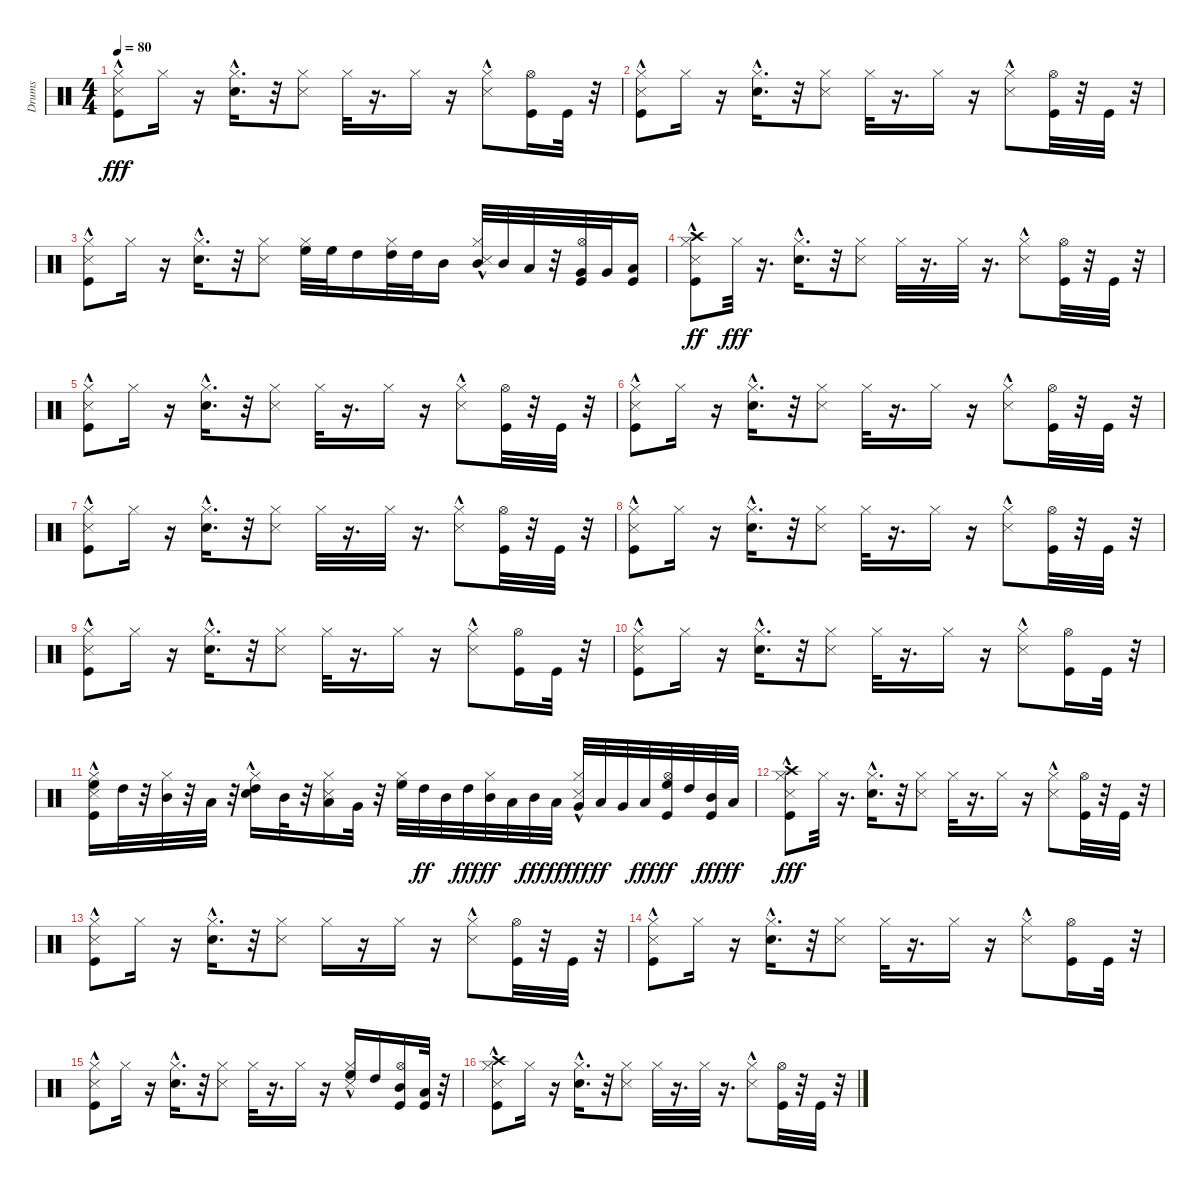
\track ("Drums" "Drums") {instrument percussion}
\staff {score}
\articulation defaults
\ts (4 4)
\tempo 80
\clef neutral
\ks c
("Snare (side stick) 3" "Kick (hit)"{hac} "Hi-Hat (closed)").8{dy fff} "Hi-Hat (closed)".16 r.16 ("Electric Snare (hit)"{hac} "Hi-Hat (closed)").16{d} r.32 ("Snare (side stick) 3" "Hi-Hat (closed)").8 "Hi-Hat (closed)".32 r.16{d} "Hi-Hat (closed)".16 r.16 ("Snare (side stick) 3"{hac} "Hi-Hat (closed)").8 ("Hi-Hat (open)" "Kick (hit)").16 "Kick (hit)".32 r.32 |
("Snare (side stick) 3" "Kick (hit)"{hac} "Hi-Hat (closed)").8 "Hi-Hat (closed)".16 r.16 ("Hi-Hat (closed)" "Electric Snare (hit)"{hac}).16{d} r.32 ("Hi-Hat (closed)" "Snare (side stick) 3").8 "Hi-Hat (closed)".32 r.16{d} "Hi-Hat (closed)".16 r.16 ("Hi-Hat (closed)" "Snare (side stick) 3"{hac}).8 ("Kick (hit)" "Hi-Hat (open)").32 r.32 "Kick (hit)".32 r.32 |
("Snare (side stick) 3" "Kick (hit)"{hac} "Hi-Hat (closed)").8 "Hi-Hat (closed)".16 r.16 ("Electric Snare (hit)"{hac} "Hi-Hat (closed)").16{d} r.32 ("Snare (side stick) 3" "Hi-Hat (closed)").8 ("Hi-Hat (closed)" "High Floor Tom (hit)").32 "High Floor Tom (hit)".32 "High Tom (hit)".16 ("Hi-Hat (closed)" "High Tom (hit)").32 "High Tom (hit)".32 "Mid Tom (hit)".16 ("Snare (side stick) 3"{hac} "Hi-Hat (closed)" "Mid Tom (hit)").32 "Mid Tom (hit)".32 "Low Tom (hit)".32 r.32 ("Hi-Hat (open)" "Kick (hit)" "Very Low Tom (hit)").32 "Very Low Tom (hit)".32 ("Low Floor Tom (hit)" "Kick (hit)").16 |
("Snare (side stick) 3" "Kick (hit)"{hac} "Hi-Hat (closed)" "Crash high (hit)"{hac}).8{dy ff} "Hi-Hat (closed)".32{dy fff} r.16{d} ("Electric Snare (hit)"{hac} "Hi-Hat (closed)").16{d} r.32 ("Snare (side stick) 3" "Hi-Hat (closed)").8 "Hi-Hat (closed)".32 r.16{d} "Hi-Hat (closed)".32 r.16{d} ("Hi-Hat (closed)" "Snare (side stick) 3"{hac}).8 ("Kick (hit)" "Hi-Hat (open)").32 r.32 "Kick (hit)".32 r.32 |
("Snare (side stick) 3" "Kick (hit)"{hac} "Hi-Hat (closed)").8 "Hi-Hat (closed)".16 r.16 ("Hi-Hat (closed)" "Electric Snare (hit)"{hac}).16{d} r.32 ("Snare (side stick) 3" "Hi-Hat (closed)").8 "Hi-Hat (closed)".32 r.16{d} "Hi-Hat (closed)".16 r.16 ("Snare (side stick) 3"{hac} "Hi-Hat (closed)").8 ("Hi-Hat (open)" "Kick (hit)").32 r.32 "Kick (hit)".32 r.32 |
("Hi-Hat (closed)" "Snare (side stick) 3" "Kick (hit)"{hac}).8 "Hi-Hat (closed)".16 r.16 ("Electric Snare (hit)"{hac} "Hi-Hat (closed)").16{d} r.32 ("Snare (side stick) 3" "Hi-Hat (closed)").8 "Hi-Hat (closed)".32 r.16{d} "Hi-Hat (closed)".16 r.16 ("Snare (side stick) 3"{hac} "Hi-Hat (closed)").8 ("Hi-Hat (open)" "Kick (hit)").32 r.32 "Kick (hit)".32 r.32 |
("Snare (side stick) 3" "Kick (hit)"{hac} "Hi-Hat (closed)").8 "Hi-Hat (closed)".16 r.16 ("Hi-Hat (closed)" "Electric Snare (hit)"{hac}).16{d} r.32 ("Snare (side stick) 3" "Hi-Hat (closed)").8 "Hi-Hat (closed)".32 r.16{d} "Hi-Hat (closed)".32 r.16{d} ("Snare (side stick) 3"{hac} "Hi-Hat (closed)").8 ("Kick (hit)" "Hi-Hat (open)").32 r.32 "Kick (hit)".32 r.32 |
("Snare (side stick) 3" "Kick (hit)"{hac} "Hi-Hat (closed)").8 "Hi-Hat (closed)".16 r.16 ("Hi-Hat (closed)" "Electric Snare (hit)"{hac}).16{d} r.32 ("Hi-Hat (closed)" "Snare (side stick) 3").8 "Hi-Hat (closed)".32 r.16{d} "Hi-Hat (closed)".16 r.16 ("Snare (side stick) 3"{hac} "Hi-Hat (closed)").8 ("Hi-Hat (open)" "Kick (hit)").32 r.32 "Kick (hit)".32 r.32 |
("Snare (side stick) 3" "Kick (hit)"{hac} "Hi-Hat (closed)").8 "Hi-Hat (closed)".16 r.16 ("Electric Snare (hit)"{hac} "Hi-Hat (closed)").16{d} r.32 ("Snare (side stick) 3" "Hi-Hat (closed)").8 "Hi-Hat (closed)".32 r.16{d} "Hi-Hat (closed)".16 r.16 ("Snare (side stick) 3"{hac} "Hi-Hat (closed)").8 ("Hi-Hat (open)" "Kick (hit)").16 "Kick (hit)".32 r.32 |
("Snare (side stick) 3" "Kick (hit)"{hac} "Hi-Hat (closed)").8 "Hi-Hat (closed)".16 r.16 ("Electric Snare (hit)"{hac} "Hi-Hat (closed)").16{d} r.32 ("Snare (side stick) 3" "Hi-Hat (closed)").8 "Hi-Hat (closed)".32 r.16{d} "Hi-Hat (closed)".16 r.16 ("Hi-Hat (closed)" "Snare (side stick) 3"{hac}).8 ("Hi-Hat (open)" "Kick (hit)").16 "Kick (hit)".32 r.32 |
("Snare (side stick) 3" "Kick (hit)"{hac} "Hi-Hat (closed)" "High Floor Tom (hit)").16 "High Tom (hit)".32 r.32 ("Hi-Hat (closed)" "Mid Tom (hit)").32 r.32 "Low Tom (hit)".32 r.32 ("Electric Snare (hit)"{hac} "Hi-Hat (closed)" "High Tom (hit)").16 "Mid Tom (hit)".32 r.32 ("Low Tom (hit)" "Snare (side stick) 3" "Hi-Hat (closed)").16 "Very Low Tom (hit)".32 r.32 ("Hi-Hat (closed)" "High Floor Tom (hit)").32 "High Tom (hit)".32{dy ff} "Mid Tom (hit)".32 "High Tom (hit)".32{dy fff} ("Hi-Hat (closed)" "Mid Tom (hit)").32{dy ff} "Low Tom (hit)".32 "Mid Tom (hit)".32{dy fff} "Low Tom (hit)".32{dy ff} ("Very Low Tom (hit)" "Snare (side stick) 3"{hac} "Hi-Hat (closed)").32{dy fff} "Low Tom (hit)".32{dy ff} "Very Low Tom (hit)".32 "Low Floor Tom (hit)".32{dy fff} ("Hi-Hat (open)" "Kick (hit)" "High Floor Tom (hit)").32{dy ff} "High Tom (hit)".32 ("Mid Tom (hit)" "Kick (hit)").32{dy fff} "Low Tom (hit)".32{dy ff} |
("Snare (side stick) 3" "Kick (hit)"{hac} "Hi-Hat (closed)" "Crash high (hit)"{hac}).8{dy fff} "Hi-Hat (closed)".32 r.16{d} ("Electric Snare (hit)"{hac} "Hi-Hat (closed)").16{d} r.32 ("Snare (side stick) 3" "Hi-Hat (closed)").8 "Hi-Hat (closed)".32 r.16{d} "Hi-Hat (closed)".16 r.16 ("Snare (side stick) 3"{hac} "Hi-Hat (closed)").8 ("Hi-Hat (open)" "Kick (hit)").32 r.32 "Kick (hit)".32 r.32 |
("Snare (side stick) 3" "Kick (hit)"{hac} "Hi-Hat (closed)").8 "Hi-Hat (closed)".16 r.16 ("Electric Snare (hit)"{hac} "Hi-Hat (closed)").16{d} r.32 ("Hi-Hat (closed)" "Snare (side stick) 3").8 "Hi-Hat (closed)".16 r.16 "Hi-Hat (closed)".16 r.16 ("Snare (side stick) 3"{hac} "Hi-Hat (closed)").8 ("Kick (hit)" "Hi-Hat (open)").32 r.32 "Kick (hit)".32 r.32 |
("Snare (side stick) 3" "Kick (hit)"{hac} "Hi-Hat (closed)").8 "Hi-Hat (closed)".16 r.16 ("Electric Snare (hit)"{hac} "Hi-Hat (closed)").16{d} r.32 ("Snare (side stick) 3" "Hi-Hat (closed)").8 "Hi-Hat (closed)".32 r.16{d} "Hi-Hat (closed)".16 r.16 ("Snare (side stick) 3"{hac} "Hi-Hat (closed)").8 ("Hi-Hat (open)" "Kick (hit)").16 "Kick (hit)".32 r.32 |
("Snare (side stick) 3" "Kick (hit)"{hac} "Hi-Hat (closed)").8 "Hi-Hat (closed)".16 r.16 ("Electric Snare (hit)"{hac} "Hi-Hat (closed)").16{d} r.32 ("Snare (side stick) 3" "Hi-Hat (closed)").8 "Hi-Hat (closed)".32 r.16{d} "Hi-Hat (closed)".16 r.16 ("Snare (side stick) 3"{hac} "Hi-Hat (closed)" "High Floor Tom (hit)").16 "High Tom (hit)".16 ("Mid Tom (hit)" "Hi-Hat (open)" "Kick (hit)").16 ("Kick (hit)" "Low Tom (hit)").32 r.32 |
("Snare (side stick) 3" "Kick (hit)"{hac} "Hi-Hat (closed)" "Crash high (hit)"{hac}).8 "Hi-Hat (closed)".16 r.16 ("Hi-Hat (closed)" "Electric Snare (hit)"{hac}).16{d} r.32 ("Snare (side stick) 3" "Hi-Hat (closed)").8 "Hi-Hat (closed)".32 r.16{d} "Hi-Hat (closed)".32 r.16{d} ("Snare (side stick) 3"{hac} "Hi-Hat (closed)").8 ("Hi-Hat (open)" "Kick (hit)").32 r.32 "Kick (hit)".32 r.32
